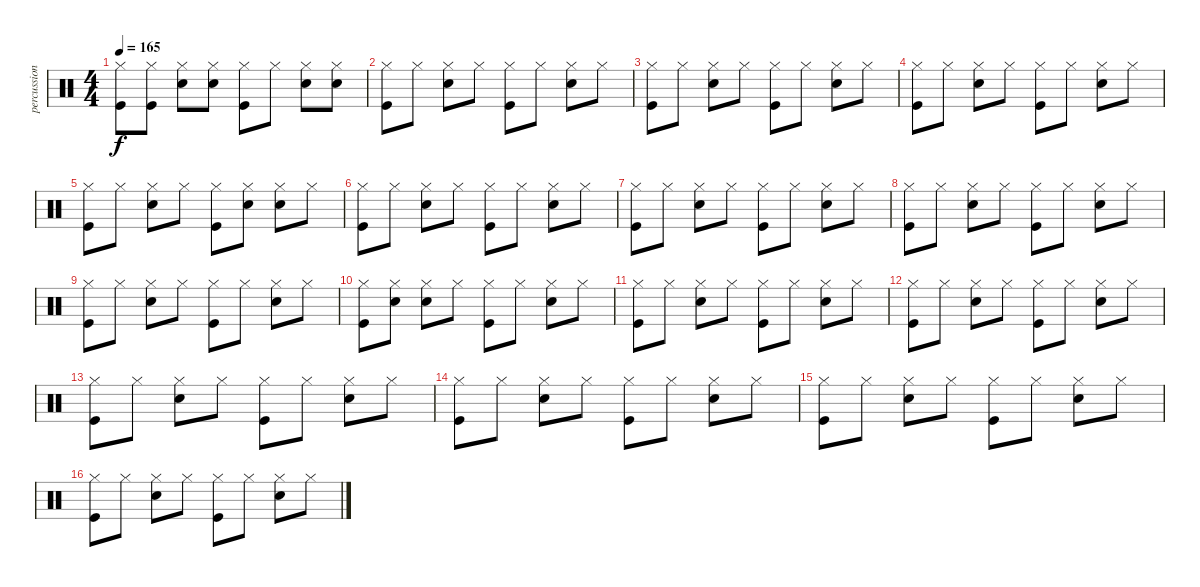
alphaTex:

\track ("percussion" "percussion") {instrument percussion}
\staff {score}
\articulation defaults
\ts (4 4)
\tempo 165
\clef neutral
\ks c
("Kick (hit)" "Hi-Hat (closed)").8{dy f} ("Kick (hit)" "Hi-Hat (closed)").8 ("Electric Snare (hit)" "Hi-Hat (closed)").8 ("Snare (hit)" "Hi-Hat (closed)").8 ("Kick (hit)" "Hi-Hat (closed)").8 "Hi-Hat (closed)".8 ("Electric Snare (hit)" "Hi-Hat (closed)").8 ("Electric Snare (hit)" "Hi-Hat (closed)").8 |
("Kick (hit)" "Hi-Hat (closed)").8 "Hi-Hat (closed)".8 ("Electric Snare (hit)" "Hi-Hat (closed)").8 "Hi-Hat (closed)".8 ("Kick (hit)" "Hi-Hat (closed)").8 "Hi-Hat (closed)".8 ("Electric Snare (hit)" "Hi-Hat (closed)").8 "Hi-Hat (closed)".8 |
("Kick (hit)" "Hi-Hat (closed)").8 "Hi-Hat (closed)".8 ("Electric Snare (hit)" "Hi-Hat (closed)").8 "Hi-Hat (closed)".8 ("Kick (hit)" "Hi-Hat (closed)").8 "Hi-Hat (closed)".8 ("Electric Snare (hit)" "Hi-Hat (closed)").8 "Hi-Hat (closed)".8 |
("Kick (hit)" "Hi-Hat (closed)").8 "Hi-Hat (closed)".8 ("Electric Snare (hit)" "Hi-Hat (closed)").8 "Hi-Hat (closed)".8 ("Kick (hit)" "Hi-Hat (closed)").8 "Hi-Hat (closed)".8 ("Electric Snare (hit)" "Hi-Hat (closed)").8 "Hi-Hat (closed)".8 |
("Kick (hit)" "Hi-Hat (closed)").8 "Hi-Hat (closed)".8 ("Electric Snare (hit)" "Hi-Hat (closed)").8 "Hi-Hat (closed)".8 ("Kick (hit)" "Hi-Hat (closed)").8 ("Snare (hit)" "Hi-Hat (closed)").8 ("Electric Snare (hit)" "Hi-Hat (closed)").8 "Hi-Hat (closed)".8 |
("Kick (hit)" "Hi-Hat (closed)").8 "Hi-Hat (closed)".8 ("Electric Snare (hit)" "Hi-Hat (closed)").8 "Hi-Hat (closed)".8 ("Kick (hit)" "Hi-Hat (closed)").8 "Hi-Hat (closed)".8 ("Electric Snare (hit)" "Hi-Hat (closed)").8 "Hi-Hat (closed)".8 |
("Kick (hit)" "Hi-Hat (closed)").8 "Hi-Hat (closed)".8 ("Electric Snare (hit)" "Hi-Hat (closed)").8 "Hi-Hat (closed)".8 ("Kick (hit)" "Hi-Hat (closed)").8 "Hi-Hat (closed)".8 ("Electric Snare (hit)" "Hi-Hat (closed)").8 "Hi-Hat (closed)".8 |
("Kick (hit)" "Hi-Hat (closed)").8 "Hi-Hat (closed)".8 ("Electric Snare (hit)" "Hi-Hat (closed)").8 "Hi-Hat (closed)".8 ("Kick (hit)" "Hi-Hat (closed)").8 "Hi-Hat (closed)".8 ("Electric Snare (hit)" "Hi-Hat (closed)").8 "Hi-Hat (closed)".8 |
("Kick (hit)" "Hi-Hat (closed)").8 "Hi-Hat (closed)".8 ("Electric Snare (hit)" "Hi-Hat (closed)").8 "Hi-Hat (closed)".8 ("Kick (hit)" "Hi-Hat (closed)").8 "Hi-Hat (closed)".8 ("Electric Snare (hit)" "Hi-Hat (closed)").8 "Hi-Hat (closed)".8 |
("Kick (hit)" "Hi-Hat (closed)").8 ("Snare (hit)" "Hi-Hat (closed)").8 ("Electric Snare (hit)" "Hi-Hat (closed)").8 "Hi-Hat (closed)".8 ("Kick (hit)" "Hi-Hat (closed)").8 "Hi-Hat (closed)".8 ("Electric Snare (hit)" "Hi-Hat (closed)").8 "Hi-Hat (closed)".8 |
("Kick (hit)" "Hi-Hat (closed)").8 "Hi-Hat (closed)".8 ("Electric Snare (hit)" "Hi-Hat (closed)").8 "Hi-Hat (closed)".8 ("Kick (hit)" "Hi-Hat (closed)").8 "Hi-Hat (closed)".8 ("Electric Snare (hit)" "Hi-Hat (closed)").8 "Hi-Hat (closed)".8 |
("Kick (hit)" "Hi-Hat (closed)").8 "Hi-Hat (closed)".8 ("Electric Snare (hit)" "Hi-Hat (closed)").8 "Hi-Hat (closed)".8 ("Kick (hit)" "Hi-Hat (closed)").8 "Hi-Hat (closed)".8 ("Electric Snare (hit)" "Hi-Hat (closed)").8 "Hi-Hat (closed)".8 |
("Kick (hit)" "Hi-Hat (closed)").8 "Hi-Hat (closed)".8 ("Electric Snare (hit)" "Hi-Hat (closed)").8 "Hi-Hat (closed)".8 ("Kick (hit)" "Hi-Hat (closed)").8 "Hi-Hat (closed)".8 ("Electric Snare (hit)" "Hi-Hat (closed)").8 "Hi-Hat (closed)".8 |
("Kick (hit)" "Hi-Hat (closed)").8 "Hi-Hat (closed)".8 ("Electric Snare (hit)" "Hi-Hat (closed)").8 "Hi-Hat (closed)".8 ("Kick (hit)" "Hi-Hat (closed)").8 "Hi-Hat (closed)".8 ("Electric Snare (hit)" "Hi-Hat (closed)").8 "Hi-Hat (closed)".8 |
("Kick (hit)" "Hi-Hat (closed)").8 "Hi-Hat (closed)".8 ("Electric Snare (hit)" "Hi-Hat (closed)").8 "Hi-Hat (closed)".8 ("Kick (hit)" "Hi-Hat (closed)").8 "Hi-Hat (closed)".8 ("Electric Snare (hit)" "Hi-Hat (closed)").8 "Hi-Hat (closed)".8 |
("Kick (hit)" "Hi-Hat (closed)").8 "Hi-Hat (closed)".8 ("Electric Snare (hit)" "Hi-Hat (closed)").8 "Hi-Hat (closed)".8 ("Kick (hit)" "Hi-Hat (closed)").8 "Hi-Hat (closed)".8 ("Electric Snare (hit)" "Hi-Hat (closed)").8 "Hi-Hat (closed)".8
